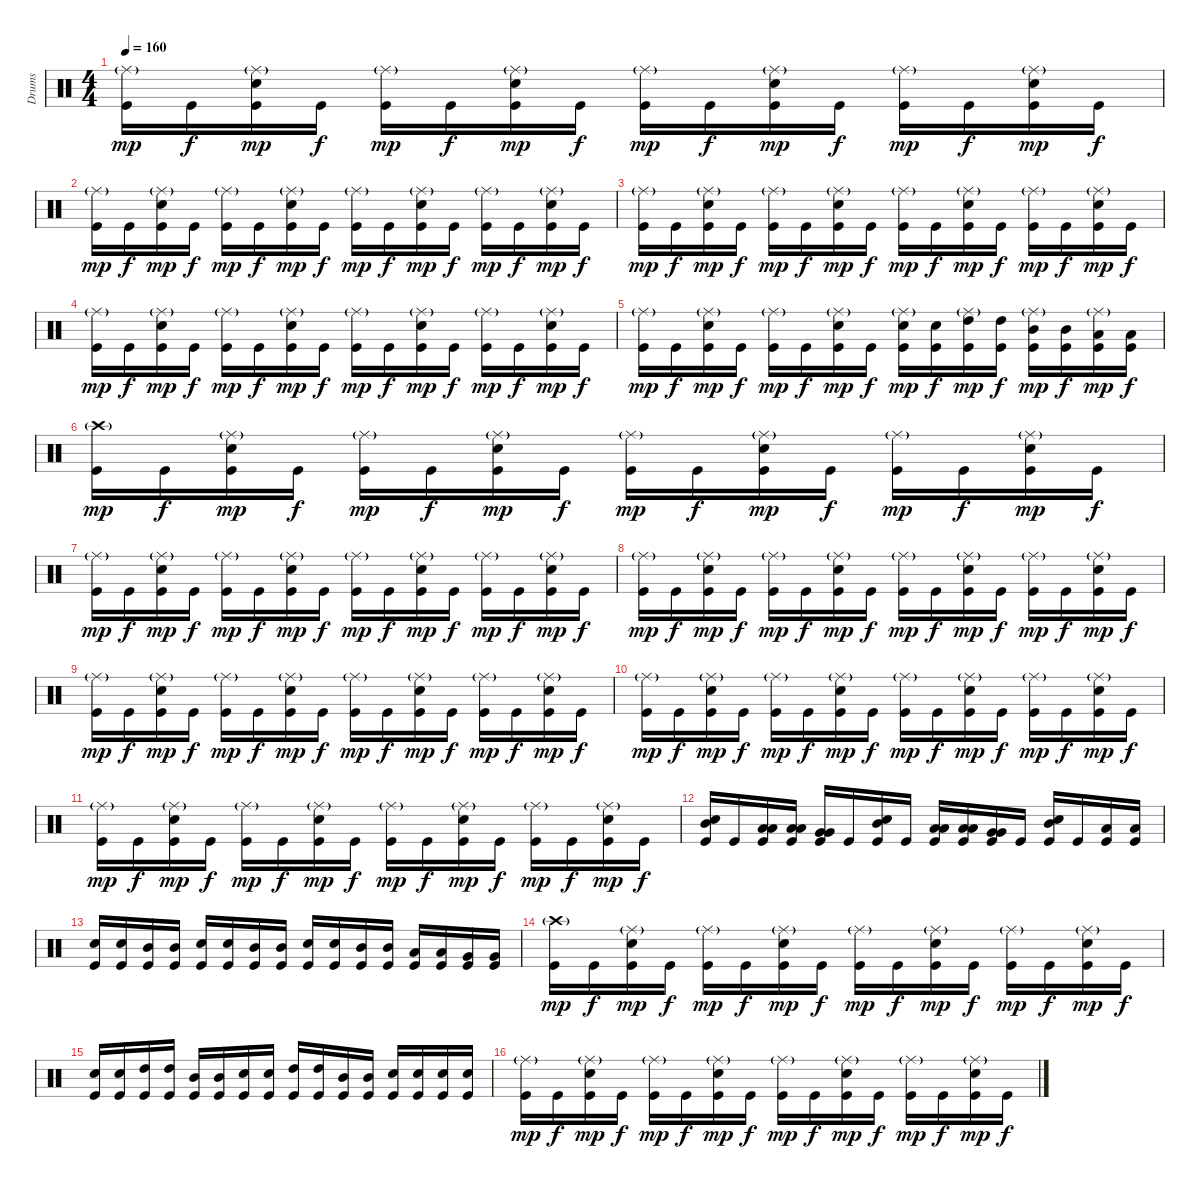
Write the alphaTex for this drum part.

\track ("Drums" "Drums") {instrument percussion}
\staff {score}
\articulation defaults
\ts (4 4)
\tempo 160
\clef neutral
\ks c
("Ride (middle)"{g} "Kick (hit)").16{dy mp} "Kick (hit)".16{dy f} ("Ride (middle)"{g} "Snare (hit) 2" "Kick (hit)").16{dy mp} "Kick (hit)".16{dy f} ("Ride (middle)"{g} "Kick (hit)").16{dy mp} "Kick (hit)".16{dy f} ("Ride (middle)"{g} "Snare (hit) 2" "Kick (hit)").16{dy mp} "Kick (hit)".16{dy f} ("Ride (middle)"{g} "Kick (hit)").16{dy mp} "Kick (hit)".16{dy f} ("Ride (middle)"{g} "Snare (hit) 2" "Kick (hit)").16{dy mp} "Kick (hit)".16{dy f} ("Ride (middle)"{g} "Kick (hit)").16{dy mp} "Kick (hit)".16{dy f} ("Ride (middle)"{g} "Snare (hit) 2" "Kick (hit)").16{dy mp} "Kick (hit)".16{dy f} |
("Ride (middle)"{g} "Kick (hit)").16{dy mp} "Kick (hit)".16{dy f} ("Ride (middle)"{g} "Snare (hit) 2" "Kick (hit)").16{dy mp} "Kick (hit)".16{dy f} ("Ride (middle)"{g} "Kick (hit)").16{dy mp} "Kick (hit)".16{dy f} ("Ride (middle)"{g} "Snare (hit) 2" "Kick (hit)").16{dy mp} "Kick (hit)".16{dy f} ("Ride (middle)"{g} "Kick (hit)").16{dy mp} "Kick (hit)".16{dy f} ("Ride (middle)"{g} "Snare (hit) 2" "Kick (hit)").16{dy mp} "Kick (hit)".16{dy f} ("Ride (middle)"{g} "Kick (hit)").16{dy mp} "Kick (hit)".16{dy f} ("Ride (middle)"{g} "Snare (hit) 2" "Kick (hit)").16{dy mp} "Kick (hit)".16{dy f} |
("Ride (middle)"{g} "Kick (hit)").16{dy mp} "Kick (hit)".16{dy f} ("Ride (middle)"{g} "Snare (hit) 2" "Kick (hit)").16{dy mp} "Kick (hit)".16{dy f} ("Ride (middle)"{g} "Kick (hit)").16{dy mp} "Kick (hit)".16{dy f} ("Ride (middle)"{g} "Snare (hit) 2" "Kick (hit)").16{dy mp} "Kick (hit)".16{dy f} ("Ride (middle)"{g} "Kick (hit)").16{dy mp} "Kick (hit)".16{dy f} ("Ride (middle)"{g} "Snare (hit) 2" "Kick (hit)").16{dy mp} "Kick (hit)".16{dy f} ("Ride (middle)"{g} "Kick (hit)").16{dy mp} "Kick (hit)".16{dy f} ("Ride (middle)"{g} "Snare (hit) 2" "Kick (hit)").16{dy mp} "Kick (hit)".16{dy f} |
("Ride (middle)"{g} "Kick (hit)").16{dy mp} "Kick (hit)".16{dy f} ("Ride (middle)"{g} "Snare (hit) 2" "Kick (hit)").16{dy mp} "Kick (hit)".16{dy f} ("Ride (middle)"{g} "Kick (hit)").16{dy mp} "Kick (hit)".16{dy f} ("Ride (middle)"{g} "Snare (hit) 2" "Kick (hit)").16{dy mp} "Kick (hit)".16{dy f} ("Ride (middle)"{g} "Kick (hit)").16{dy mp} "Kick (hit)".16{dy f} ("Ride (middle)"{g} "Snare (hit) 2" "Kick (hit)").16{dy mp} "Kick (hit)".16{dy f} ("Ride (middle)"{g} "Kick (hit)").16{dy mp} "Kick (hit)".16{dy f} ("Ride (middle)"{g} "Snare (hit) 2" "Kick (hit)").16{dy mp} "Kick (hit)".16{dy f} |
("Ride (middle)"{g} "Kick (hit)").16{dy mp} "Kick (hit)".16{dy f} ("Ride (middle)"{g} "Snare (hit) 2" "Kick (hit)").16{dy mp} "Kick (hit)".16{dy f} ("Ride (middle)"{g} "Kick (hit)").16{dy mp} "Kick (hit)".16{dy f} ("Ride (middle)"{g} "Snare (hit) 2" "Kick (hit)").16{dy mp} "Kick (hit)".16{dy f} ("Ride (middle)"{g} "Snare (hit) 2" "Kick (hit)").16{dy mp} ("Snare (hit) 2" "Kick (hit)").16{dy f} ("Ride (middle)"{g} "High Tom (hit)" "Kick (hit)").16{dy mp} ("High Tom (hit)" "Kick (hit)").16{dy f} ("Ride (middle)"{g} "Mid Tom (hit)" "Kick (hit)").16{dy mp} ("Mid Tom (hit)" "Kick (hit)").16{dy f} ("Ride (middle)"{g} "Low Tom (hit)" "Kick (hit)").16{dy mp} ("Low Tom (hit)" "Kick (hit)").16{dy f} |
("Crash high (hit)"{g} "Kick (hit)").16{dy mp} "Kick (hit)".16{dy f} ("Ride (middle)"{g} "Snare (hit) 2" "Kick (hit)").16{dy mp} "Kick (hit)".16{dy f} ("Ride (middle)"{g} "Kick (hit)").16{dy mp} "Kick (hit)".16{dy f} ("Ride (middle)"{g} "Snare (hit) 2" "Kick (hit)").16{dy mp} "Kick (hit)".16{dy f} ("Ride (middle)"{g} "Kick (hit)").16{dy mp} "Kick (hit)".16{dy f} ("Ride (middle)"{g} "Snare (hit) 2" "Kick (hit)").16{dy mp} "Kick (hit)".16{dy f} ("Ride (middle)"{g} "Kick (hit)").16{dy mp} "Kick (hit)".16{dy f} ("Ride (middle)"{g} "Snare (hit) 2" "Kick (hit)").16{dy mp} "Kick (hit)".16{dy f} |
("Ride (middle)"{g} "Kick (hit)").16{dy mp} "Kick (hit)".16{dy f} ("Ride (middle)"{g} "Snare (hit) 2" "Kick (hit)").16{dy mp} "Kick (hit)".16{dy f} ("Ride (middle)"{g} "Kick (hit)").16{dy mp} "Kick (hit)".16{dy f} ("Ride (middle)"{g} "Snare (hit) 2" "Kick (hit)").16{dy mp} "Kick (hit)".16{dy f} ("Ride (middle)"{g} "Kick (hit)").16{dy mp} "Kick (hit)".16{dy f} ("Ride (middle)"{g} "Snare (hit) 2" "Kick (hit)").16{dy mp} "Kick (hit)".16{dy f} ("Ride (middle)"{g} "Kick (hit)").16{dy mp} "Kick (hit)".16{dy f} ("Ride (middle)"{g} "Snare (hit) 2" "Kick (hit)").16{dy mp} "Kick (hit)".16{dy f} |
("Ride (middle)"{g} "Kick (hit)").16{dy mp} "Kick (hit)".16{dy f} ("Ride (middle)"{g} "Snare (hit) 2" "Kick (hit)").16{dy mp} "Kick (hit)".16{dy f} ("Ride (middle)"{g} "Kick (hit)").16{dy mp} "Kick (hit)".16{dy f} ("Ride (middle)"{g} "Snare (hit) 2" "Kick (hit)").16{dy mp} "Kick (hit)".16{dy f} ("Ride (middle)"{g} "Kick (hit)").16{dy mp} "Kick (hit)".16{dy f} ("Ride (middle)"{g} "Snare (hit) 2" "Kick (hit)").16{dy mp} "Kick (hit)".16{dy f} ("Ride (middle)"{g} "Kick (hit)").16{dy mp} "Kick (hit)".16{dy f} ("Ride (middle)"{g} "Snare (hit) 2" "Kick (hit)").16{dy mp} "Kick (hit)".16{dy f} |
("Ride (middle)"{g} "Kick (hit)").16{dy mp} "Kick (hit)".16{dy f} ("Ride (middle)"{g} "Snare (hit) 2" "Kick (hit)").16{dy mp} "Kick (hit)".16{dy f} ("Ride (middle)"{g} "Kick (hit)").16{dy mp} "Kick (hit)".16{dy f} ("Ride (middle)"{g} "Snare (hit) 2" "Kick (hit)").16{dy mp} "Kick (hit)".16{dy f} ("Ride (middle)"{g} "Kick (hit)").16{dy mp} "Kick (hit)".16{dy f} ("Ride (middle)"{g} "Snare (hit) 2" "Kick (hit)").16{dy mp} "Kick (hit)".16{dy f} ("Ride (middle)"{g} "Kick (hit)").16{dy mp} "Kick (hit)".16{dy f} ("Ride (middle)"{g} "Snare (hit) 2" "Kick (hit)").16{dy mp} "Kick (hit)".16{dy f} |
("Ride (middle)"{g} "Kick (hit)").16{dy mp} "Kick (hit)".16{dy f} ("Ride (middle)"{g} "Snare (hit) 2" "Kick (hit)").16{dy mp} "Kick (hit)".16{dy f} ("Ride (middle)"{g} "Kick (hit)").16{dy mp} "Kick (hit)".16{dy f} ("Ride (middle)"{g} "Snare (hit) 2" "Kick (hit)").16{dy mp} "Kick (hit)".16{dy f} ("Ride (middle)"{g} "Kick (hit)").16{dy mp} "Kick (hit)".16{dy f} ("Ride (middle)"{g} "Snare (hit) 2" "Kick (hit)").16{dy mp} "Kick (hit)".16{dy f} ("Ride (middle)"{g} "Kick (hit)").16{dy mp} "Kick (hit)".16{dy f} ("Ride (middle)"{g} "Snare (hit) 2" "Kick (hit)").16{dy mp} "Kick (hit)".16{dy f} |
("Ride (middle)"{g} "Kick (hit)").16{dy mp} "Kick (hit)".16{dy f} ("Ride (middle)"{g} "Snare (hit) 2" "Kick (hit)").16{dy mp} "Kick (hit)".16{dy f} ("Ride (middle)"{g} "Kick (hit)").16{dy mp} "Kick (hit)".16{dy f} ("Ride (middle)"{g} "Snare (hit) 2" "Kick (hit)").16{dy mp} "Kick (hit)".16{dy f} ("Ride (middle)"{g} "Kick (hit)").16{dy mp} "Kick (hit)".16{dy f} ("Ride (middle)"{g} "Snare (hit) 2" "Kick (hit)").16{dy mp} "Kick (hit)".16{dy f} ("Ride (middle)"{g} "Kick (hit)").16{dy mp} "Kick (hit)".16{dy f} ("Ride (middle)"{g} "Snare (hit) 2" "Kick (hit)").16{dy mp} "Kick (hit)".16{dy f} |
("Snare (hit) 2" "Mid Tom (hit)" "Kick (hit)").16 "Kick (hit)".16 ("Low Tom (hit)" "Low Tom (hit)" "Kick (hit)").16 ("Low Tom (hit)" "Low Tom (hit)" "Kick (hit)").16 ("Very Low Tom (hit)" "Very Low Tom (hit)" "Kick (hit)").16 "Kick (hit)".16 ("Snare (hit) 2" "Mid Tom (hit)" "Kick (hit)").16 "Kick (hit)".16 ("Low Tom (hit)" "Low Tom (hit)" "Kick (hit)").16 ("Low Tom (hit)" "Low Tom (hit)" "Kick (hit)").16 ("Very Low Tom (hit)" "Very Low Tom (hit)" "Kick (hit)").16 "Kick (hit)".16 ("Snare (hit) 2" "Mid Tom (hit)" "Kick (hit)").16 "Kick (hit)".16 ("Low Tom (hit)" "Kick (hit)").16 ("Low Tom (hit)" "Kick (hit)").16 |
("Snare (hit) 2" "Kick (hit)").16 ("Snare (hit) 2" "Kick (hit)").16 ("Mid Tom (hit)" "Kick (hit)").16 ("Mid Tom (hit)" "Kick (hit)").16 ("Snare (hit) 2" "Kick (hit)").16 ("Snare (hit) 2" "Kick (hit)").16 ("Mid Tom (hit)" "Kick (hit)").16 ("Mid Tom (hit)" "Kick (hit)").16 ("Snare (hit) 2" "Kick (hit)").16 ("Snare (hit) 2" "Kick (hit)").16 ("Mid Tom (hit)" "Kick (hit)").16 ("Mid Tom (hit)" "Kick (hit)").16 ("Low Tom (hit)" "Kick (hit)").16 ("Low Tom (hit)" "Kick (hit)").16 ("Very Low Tom (hit)" "Kick (hit)").16 ("Very Low Tom (hit)" "Kick (hit)").16 |
("Crash high (hit)"{g} "Kick (hit)").16{dy mp} "Kick (hit)".16{dy f} ("Ride (middle)"{g} "Snare (hit) 2" "Kick (hit)").16{dy mp} "Kick (hit)".16{dy f} ("Ride (middle)"{g} "Kick (hit)").16{dy mp} "Kick (hit)".16{dy f} ("Ride (middle)"{g} "Snare (hit) 2" "Kick (hit)").16{dy mp} "Kick (hit)".16{dy f} ("Ride (middle)"{g} "Kick (hit)").16{dy mp} "Kick (hit)".16{dy f} ("Ride (middle)"{g} "Snare (hit) 2" "Kick (hit)").16{dy mp} "Kick (hit)".16{dy f} ("Ride (middle)"{g} "Kick (hit)").16{dy mp} "Kick (hit)".16{dy f} ("Ride (middle)"{g} "Snare (hit) 2" "Kick (hit)").16{dy mp} "Kick (hit)".16{dy f} |
("Snare (hit) 2" "Kick (hit)").16 ("Snare (hit) 2" "Kick (hit)").16 ("High Tom (hit)" "Kick (hit)").16 ("High Tom (hit)" "Kick (hit)").16 ("Mid Tom (hit)" "Kick (hit)").16 ("Mid Tom (hit)" "Kick (hit)").16 ("Snare (hit) 2" "Kick (hit)").16 ("Snare (hit) 2" "Kick (hit)").16 ("High Tom (hit)" "Kick (hit)").16 ("High Tom (hit)" "Kick (hit)").16 ("Mid Tom (hit)" "Kick (hit)").16 ("Mid Tom (hit)" "Kick (hit)").16 ("Snare (hit) 2" "Kick (hit)").16 ("Snare (hit) 2" "Kick (hit)").16 ("Snare (hit) 2" "Kick (hit)").16 ("Snare (hit) 2" "Kick (hit)").16 |
("Ride (middle)"{g} "Kick (hit)").16{dy mp} "Kick (hit)".16{dy f} ("Ride (middle)"{g} "Snare (hit) 2" "Kick (hit)").16{dy mp} "Kick (hit)".16{dy f} ("Ride (middle)"{g} "Kick (hit)").16{dy mp} "Kick (hit)".16{dy f} ("Ride (middle)"{g} "Snare (hit) 2" "Kick (hit)").16{dy mp} "Kick (hit)".16{dy f} ("Ride (middle)"{g} "Kick (hit)").16{dy mp} "Kick (hit)".16{dy f} ("Ride (middle)"{g} "Snare (hit) 2" "Kick (hit)").16{dy mp} "Kick (hit)".16{dy f} ("Ride (middle)"{g} "Kick (hit)").16{dy mp} "Kick (hit)".16{dy f} ("Ride (middle)"{g} "Snare (hit) 2" "Kick (hit)").16{dy mp} "Kick (hit)".16{dy f}
